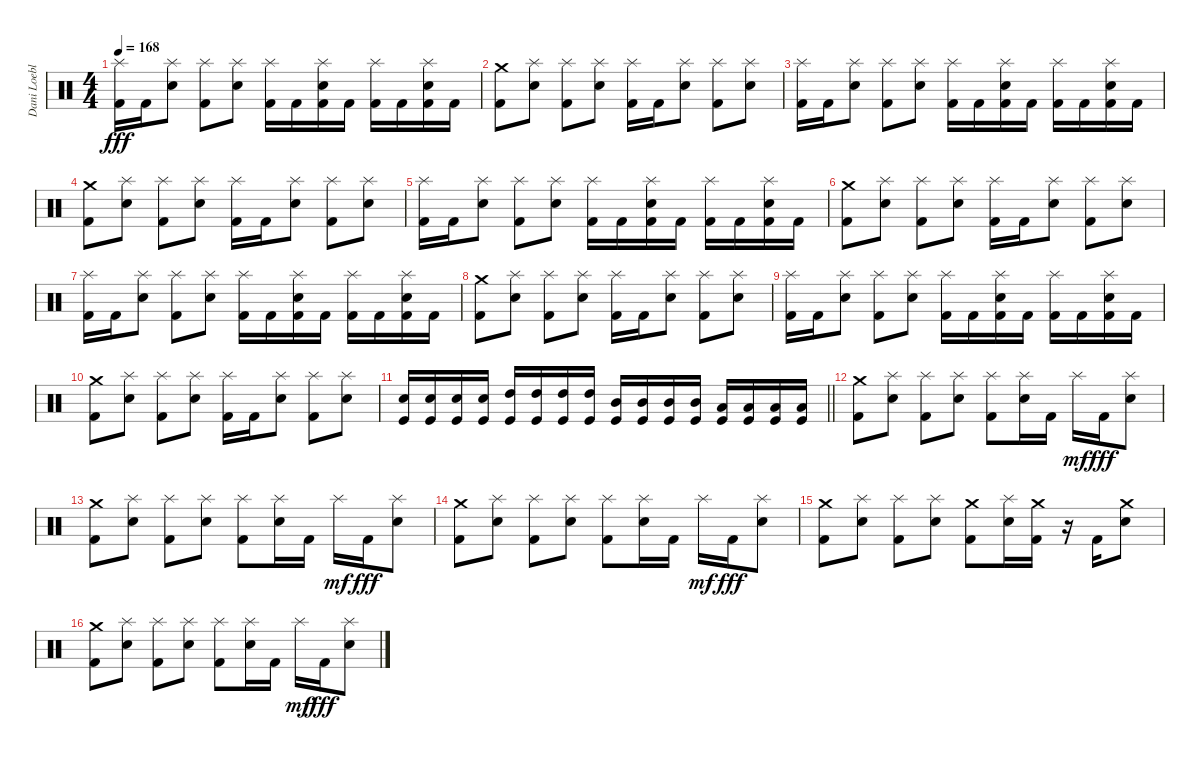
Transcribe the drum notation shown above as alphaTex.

\track ("Dani Loeble" "Dani Loebl") {instrument percussion}
\staff {score}
\articulation defaults
\ts (4 4)
\tempo 168
\clef neutral
\ks c
("Splash (hit)" "Kick (hit) 2").16{dy fff} "Kick (hit) 2".16 ("Splash (hit)" "Electric Snare (hit)").8 ("Splash (hit)" "Kick (hit) 2").8 ("Splash (hit)" "Electric Snare (hit)").8 ("Splash (hit)" "Kick (hit) 2").16 "Kick (hit) 2".16 ("Splash (hit)" "Electric Snare (hit)" "Kick (hit) 2").16 "Kick (hit) 2".16 ("Splash (hit)" "Kick (hit) 2").16 "Kick (hit) 2".16 ("Splash (hit)" "Electric Snare (hit)" "Kick (hit) 2").16 "Kick (hit) 2".16 |
("Crash medium (hit)" "Kick (hit) 2").8 ("Splash (hit)" "Electric Snare (hit)").8 ("Splash (hit)" "Kick (hit) 2").8 ("Splash (hit)" "Electric Snare (hit)").8 ("Splash (hit)" "Kick (hit) 2").16 "Kick (hit) 2".16 ("Splash (hit)" "Electric Snare (hit)").8 ("Splash (hit)" "Kick (hit) 2").8 ("Splash (hit)" "Electric Snare (hit)").8 |
("Splash (hit)" "Kick (hit) 2").16 "Kick (hit) 2".16 ("Splash (hit)" "Electric Snare (hit)").8 ("Splash (hit)" "Kick (hit) 2").8 ("Splash (hit)" "Electric Snare (hit)").8 ("Splash (hit)" "Kick (hit) 2").16 "Kick (hit) 2".16 ("Splash (hit)" "Electric Snare (hit)" "Kick (hit) 2").16 "Kick (hit) 2".16 ("Splash (hit)" "Kick (hit) 2").16 "Kick (hit) 2".16 ("Splash (hit)" "Electric Snare (hit)" "Kick (hit) 2").16 "Kick (hit) 2".16 |
("Crash medium (hit)" "Kick (hit) 2").8 ("Splash (hit)" "Electric Snare (hit)").8 ("Splash (hit)" "Kick (hit) 2").8 ("Splash (hit)" "Electric Snare (hit)").8 ("Splash (hit)" "Kick (hit) 2").16 "Kick (hit) 2".16 ("Splash (hit)" "Electric Snare (hit)").8 ("Splash (hit)" "Kick (hit) 2").8 ("Splash (hit)" "Electric Snare (hit)").8 |
("Splash (hit)" "Kick (hit) 2").16 "Kick (hit) 2".16 ("Splash (hit)" "Electric Snare (hit)").8 ("Splash (hit)" "Kick (hit) 2").8 ("Splash (hit)" "Electric Snare (hit)").8 ("Splash (hit)" "Kick (hit) 2").16 "Kick (hit) 2".16 ("Splash (hit)" "Electric Snare (hit)" "Kick (hit) 2").16 "Kick (hit) 2".16 ("Splash (hit)" "Kick (hit) 2").16 "Kick (hit) 2".16 ("Splash (hit)" "Electric Snare (hit)" "Kick (hit) 2").16 "Kick (hit) 2".16 |
("Crash medium (hit)" "Kick (hit) 2").8 ("Splash (hit)" "Electric Snare (hit)").8 ("Splash (hit)" "Kick (hit) 2").8 ("Splash (hit)" "Electric Snare (hit)").8 ("Splash (hit)" "Kick (hit) 2").16 "Kick (hit) 2".16 ("Splash (hit)" "Electric Snare (hit)").8 ("Splash (hit)" "Kick (hit) 2").8 ("Splash (hit)" "Electric Snare (hit)").8 |
("Splash (hit)" "Kick (hit) 2").16 "Kick (hit) 2".16 ("Splash (hit)" "Electric Snare (hit)").8 ("Splash (hit)" "Kick (hit) 2").8 ("Splash (hit)" "Electric Snare (hit)").8 ("Splash (hit)" "Kick (hit) 2").16 "Kick (hit) 2".16 ("Splash (hit)" "Electric Snare (hit)" "Kick (hit) 2").16 "Kick (hit) 2".16 ("Splash (hit)" "Kick (hit) 2").16 "Kick (hit) 2".16 ("Splash (hit)" "Electric Snare (hit)" "Kick (hit) 2").16 "Kick (hit) 2".16 |
("Crash medium (hit)" "Kick (hit) 2").8 ("Splash (hit)" "Electric Snare (hit)").8 ("Splash (hit)" "Kick (hit) 2").8 ("Splash (hit)" "Electric Snare (hit)").8 ("Splash (hit)" "Kick (hit) 2").16 "Kick (hit) 2".16 ("Splash (hit)" "Electric Snare (hit)").8 ("Splash (hit)" "Kick (hit) 2").8 ("Splash (hit)" "Electric Snare (hit)").8 |
("Splash (hit)" "Kick (hit) 2").16 "Kick (hit) 2".16 ("Splash (hit)" "Electric Snare (hit)").8 ("Splash (hit)" "Kick (hit) 2").8 ("Splash (hit)" "Electric Snare (hit)").8 ("Splash (hit)" "Kick (hit) 2").16 "Kick (hit) 2".16 ("Splash (hit)" "Electric Snare (hit)" "Kick (hit) 2").16 "Kick (hit) 2".16 ("Splash (hit)" "Kick (hit) 2").16 "Kick (hit) 2".16 ("Splash (hit)" "Electric Snare (hit)" "Kick (hit) 2").16 "Kick (hit) 2".16 |
("Crash medium (hit)" "Kick (hit) 2").8 ("Splash (hit)" "Electric Snare (hit)").8 ("Splash (hit)" "Kick (hit) 2").8 ("Splash (hit)" "Electric Snare (hit)").8 ("Splash (hit)" "Kick (hit) 2").16 "Kick (hit) 2".16 ("Splash (hit)" "Electric Snare (hit)").8 ("Splash (hit)" "Kick (hit) 2").8 ("Splash (hit)" "Electric Snare (hit)").8 |
\barLineRight lightlight
("Electric Snare (hit)" "Kick (hit)").16 ("Electric Snare (hit)" "Kick (hit)").16 ("Electric Snare (hit)" "Kick (hit)").16 ("Electric Snare (hit)" "Kick (hit)").16 ("High Tom (hit)" "Kick (hit)").16 ("High Tom (hit)" "Kick (hit)").16 ("High Tom (hit)" "Kick (hit)").16 ("High Tom (hit)" "Kick (hit)").16 ("Mid Tom (hit)" "Kick (hit)").16 ("Mid Tom (hit)" "Kick (hit)").16 ("Mid Tom (hit)" "Kick (hit)").16 ("Mid Tom (hit)" "Kick (hit)").16 ("Low Tom (hit)" "Kick (hit)").16 ("Low Tom (hit)" "Kick (hit)").16 ("Low Tom (hit)" "Kick (hit)").16 ("Low Tom (hit)" "Kick (hit)").16 |
\section ("" "")
("Crash medium (hit)" "Kick (hit) 2").8 ("Splash (hit)" "Electric Snare (hit)").8 ("Splash (hit)" "Kick (hit) 2").8 ("Splash (hit)" "Electric Snare (hit)").8 ("Splash (hit)" "Kick (hit) 2").8 ("Splash (hit)" "Electric Snare (hit)").16 "Kick (hit) 2".16 "Splash (hit)".16{dy mf} "Kick (hit) 2".16{dy fff} ("Splash (hit)" "Electric Snare (hit)").8 |
("Crash medium (hit)" "Kick (hit) 2").8 ("Splash (hit)" "Electric Snare (hit)").8 ("Splash (hit)" "Kick (hit) 2").8 ("Splash (hit)" "Electric Snare (hit)").8 ("Splash (hit)" "Kick (hit) 2").8 ("Splash (hit)" "Electric Snare (hit)").16 "Kick (hit) 2".16 "Splash (hit)".16{dy mf} "Kick (hit) 2".16{dy fff} ("Splash (hit)" "Electric Snare (hit)").8 |
("Crash medium (hit)" "Kick (hit) 2").8 ("Splash (hit)" "Electric Snare (hit)").8 ("Splash (hit)" "Kick (hit) 2").8 ("Splash (hit)" "Electric Snare (hit)").8 ("Splash (hit)" "Kick (hit) 2").8 ("Splash (hit)" "Electric Snare (hit)").16 "Kick (hit) 2".16 "Splash (hit)".16{dy mf} "Kick (hit) 2".16{dy fff} ("Splash (hit)" "Electric Snare (hit)").8 |
("Crash medium (hit)" "Kick (hit) 2").8 ("Splash (hit)" "Electric Snare (hit)").8 ("Splash (hit)" "Kick (hit) 2").8 ("Splash (hit)" "Electric Snare (hit)").8 ("Crash medium (hit)" "Kick (hit) 2").8 ("Splash (hit)" "Electric Snare (hit)").16 ("Crash medium (hit)" "Kick (hit) 2").16 r.16 "Kick (hit) 2".16 ("Crash medium (hit)" "Electric Snare (hit)").8 |
("Crash medium (hit)" "Kick (hit) 2").8 ("Splash (hit)" "Electric Snare (hit)").8 ("Splash (hit)" "Kick (hit) 2").8 ("Splash (hit)" "Electric Snare (hit)").8 ("Splash (hit)" "Kick (hit) 2").8 ("Splash (hit)" "Electric Snare (hit)").16 "Kick (hit) 2".16 "Splash (hit)".16{dy mf} "Kick (hit) 2".16{dy fff} ("Splash (hit)" "Electric Snare (hit)").8
